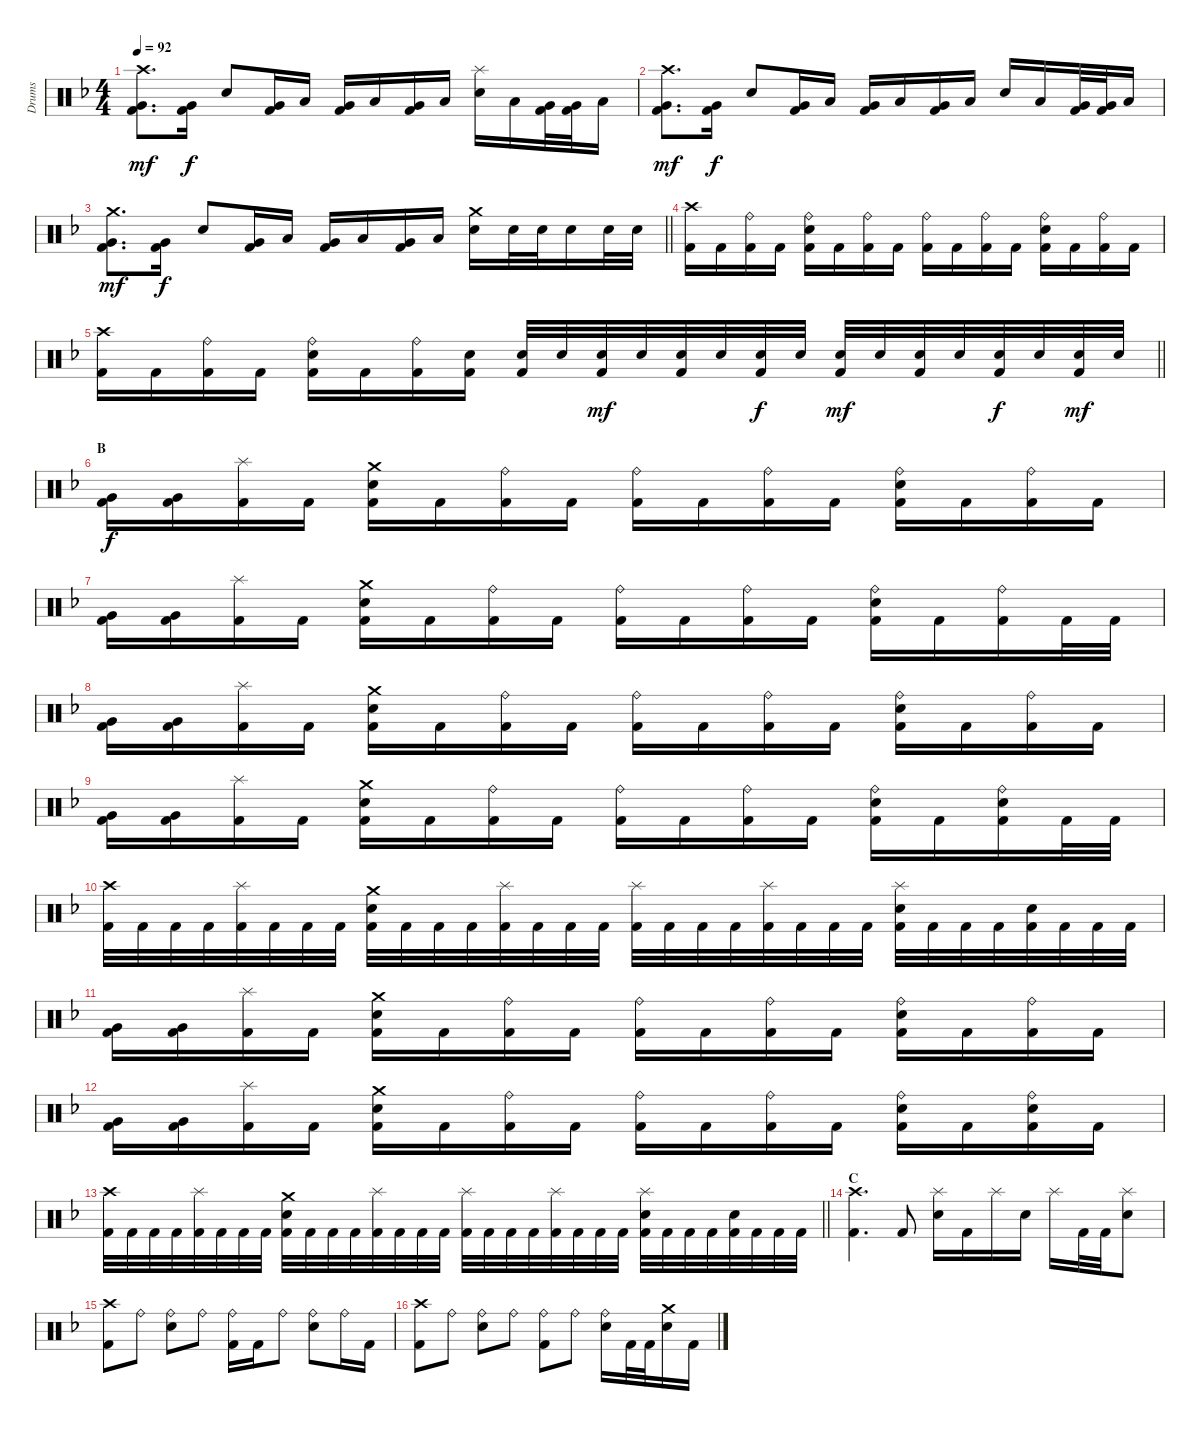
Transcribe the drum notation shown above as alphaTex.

\track ("Drums" "Drums") {instrument percussion}
\staff {score}
\articulation defaults
\ts (4 4)
\tempo 92
\clef neutral
\ks f
("Crash high (hit)" "Very Low Tom (hit)" "Kick (hit) 2").8{d dy mf} ("Very Low Tom (hit)" "Kick (hit) 2").16{dy f} "Snare (hit) 2".8 ("Very Low Tom (hit)" "Kick (hit) 2").16 "Low Tom (hit)".16 ("Very Low Tom (hit)" "Kick (hit) 2").16 "Low Tom (hit)".16 ("Very Low Tom (hit)" "Kick (hit) 2").16 "Low Tom (hit)".16 ("Splash (hit)" "Snare (hit) 2").16 "Low Tom (hit)".16 ("Very Low Tom (hit)" "Kick (hit) 2").32 ("Very Low Tom (hit)" "Kick (hit) 2").32 "Low Tom (hit)".16 |
("Crash high (hit)" "Very Low Tom (hit)" "Kick (hit) 2").8{d dy mf} ("Very Low Tom (hit)" "Kick (hit) 2").16{dy f} "Snare (hit) 2".8 ("Very Low Tom (hit)" "Kick (hit) 2").16 "Low Tom (hit)".16 ("Very Low Tom (hit)" "Kick (hit) 2").16 "Low Tom (hit)".16 ("Very Low Tom (hit)" "Kick (hit) 2").16 "Low Tom (hit)".16 "Snare (hit) 2".16 "Low Tom (hit)".16 ("Very Low Tom (hit)" "Kick (hit) 2").32 ("Very Low Tom (hit)" "Kick (hit) 2").32 "Low Tom (hit)".16 |
\barLineRight lightlight
("Crash medium (hit)" "Very Low Tom (hit)" "Kick (hit) 2").8{d dy mf} ("Very Low Tom (hit)" "Kick (hit) 2").16{dy f} "Snare (hit) 2".8 ("Very Low Tom (hit)" "Kick (hit) 2").16 "Low Tom (hit)".16 ("Very Low Tom (hit)" "Kick (hit) 2").16 "Low Tom (hit)".16 ("Very Low Tom (hit)" "Kick (hit) 2").16 "Low Tom (hit)".16 ("Snare (hit) 2" "Crash medium (hit)").16 "Snare (hit) 2".32 "Snare (hit) 2".32 "Snare (hit) 2".16 "Snare (hit) 2".32 "Snare (hit) 2".32 |
\section ("" "")
("Kick (hit) 2" "Crash high (hit)").16 "Kick (hit) 2".16 ("Kick (hit) 2" "Ride (bell)").16 "Kick (hit) 2".16 ("Kick (hit) 2" "Ride (bell)" "Snare (hit) 2").16 "Kick (hit) 2".16 ("Kick (hit) 2" "Ride (bell)").16 "Kick (hit) 2".16 ("Kick (hit) 2" "Ride (bell)").16 "Kick (hit) 2".16 ("Kick (hit) 2" "Ride (bell)").16 "Kick (hit) 2".16 ("Kick (hit) 2" "Ride (bell)" "Snare (hit) 2").16 "Kick (hit) 2".16 ("Kick (hit) 2" "Ride (bell)").16 "Kick (hit) 2".16 |
\barLineRight lightlight
("Kick (hit) 2" "Crash high (hit)").16 "Kick (hit) 2".16 ("Kick (hit) 2" "Ride (bell)").16 "Kick (hit) 2".16 ("Kick (hit) 2" "Ride (bell)" "Snare (hit) 2").16 "Kick (hit) 2".16 ("Kick (hit) 2" "Ride (bell)").16 ("Kick (hit) 2" "Snare (hit) 2").16 ("Snare (hit) 2" "Kick (hit) 2").32 "Snare (hit) 2".32 ("Snare (hit) 2" "Kick (hit) 2").32{dy mf} "Snare (hit) 2".32 ("Snare (hit) 2" "Kick (hit) 2").32 "Snare (hit) 2".32 ("Snare (hit) 2" "Kick (hit) 2").32{dy f} "Snare (hit) 2".32 ("Snare (hit) 2" "Kick (hit) 2").32{dy mf} "Snare (hit) 2".32 ("Snare (hit) 2" "Kick (hit) 2").32 "Snare (hit) 2".32 ("Snare (hit) 2" "Kick (hit) 2").32{dy f} "Snare (hit) 2".32 ("Snare (hit) 2" "Kick (hit) 2").32{dy mf} "Snare (hit) 2".32 |
\section ("" "B")
("Kick (hit) 2" "Very Low Tom (hit)").16{dy f} ("Kick (hit) 2" "Very Low Tom (hit)").16 ("Kick (hit) 2" "Splash (hit)").16 "Kick (hit) 2".16 ("Kick (hit) 2" "Crash medium (hit)" "Snare (hit) 2").16 "Kick (hit) 2".16 ("Kick (hit) 2" "Ride (bell)").16 "Kick (hit) 2".16 ("Kick (hit) 2" "Ride (bell)").16 "Kick (hit) 2".16 ("Kick (hit) 2" "Ride (bell)").16 "Kick (hit) 2".16 ("Kick (hit) 2" "Ride (bell)" "Snare (hit) 2").16 "Kick (hit) 2".16 ("Kick (hit) 2" "Ride (bell)").16 "Kick (hit) 2".16 |
("Kick (hit) 2" "Very Low Tom (hit)").16 ("Kick (hit) 2" "Very Low Tom (hit)").16 ("Kick (hit) 2" "Splash (hit)").16 "Kick (hit) 2".16 ("Kick (hit) 2" "Crash medium (hit)" "Snare (hit) 2").16 "Kick (hit) 2".16 ("Kick (hit) 2" "Ride (bell)").16 "Kick (hit) 2".16 ("Kick (hit) 2" "Ride (bell)").16 "Kick (hit) 2".16 ("Kick (hit) 2" "Ride (bell)").16 "Kick (hit) 2".16 ("Kick (hit) 2" "Ride (bell)" "Snare (hit) 2").16 "Kick (hit) 2".16 ("Kick (hit) 2" "Ride (bell)").16 "Kick (hit) 2".32 "Kick (hit) 2".32 |
("Kick (hit) 2" "Very Low Tom (hit)").16 ("Kick (hit) 2" "Very Low Tom (hit)").16 ("Kick (hit) 2" "Splash (hit)").16 "Kick (hit) 2".16 ("Kick (hit) 2" "Crash medium (hit)" "Snare (hit) 2").16 "Kick (hit) 2".16 ("Kick (hit) 2" "Ride (bell)").16 "Kick (hit) 2".16 ("Kick (hit) 2" "Ride (bell)").16 "Kick (hit) 2".16 ("Kick (hit) 2" "Ride (bell)").16 "Kick (hit) 2".16 ("Kick (hit) 2" "Ride (bell)" "Snare (hit) 2").16 "Kick (hit) 2".16 ("Kick (hit) 2" "Ride (bell)").16 "Kick (hit) 2".16 |
("Kick (hit) 2" "Very Low Tom (hit)").16 ("Kick (hit) 2" "Very Low Tom (hit)").16 ("Kick (hit) 2" "Splash (hit)").16 "Kick (hit) 2".16 ("Kick (hit) 2" "Crash medium (hit)" "Snare (hit) 2").16 "Kick (hit) 2".16 ("Kick (hit) 2" "Ride (bell)").16 "Kick (hit) 2".16 ("Kick (hit) 2" "Ride (bell)").16 "Kick (hit) 2".16 ("Kick (hit) 2" "Ride (bell)").16 "Kick (hit) 2".16 ("Kick (hit) 2" "Ride (bell)" "Snare (hit) 2").16 "Kick (hit) 2".16 ("Kick (hit) 2" "Ride (bell)" "Snare (hit) 2").16 "Kick (hit) 2".32 "Kick (hit) 2".32 |
("Kick (hit) 2" "Crash high (hit)").32 "Kick (hit) 2".32 "Kick (hit) 2".32 "Kick (hit) 2".32 ("Kick (hit) 2" "Splash (hit)").32 "Kick (hit) 2".32 "Kick (hit) 2".32 "Kick (hit) 2".32 ("Kick (hit) 2" "Crash medium (hit)" "Snare (hit) 2").32 "Kick (hit) 2".32 "Kick (hit) 2".32 "Kick (hit) 2".32 ("Kick (hit) 2" "Splash (hit)").32 "Kick (hit) 2".32 "Kick (hit) 2".32 "Kick (hit) 2".32 ("Kick (hit) 2" "Splash (hit)").32 "Kick (hit) 2".32 "Kick (hit) 2".32 "Kick (hit) 2".32 ("Kick (hit) 2" "Splash (hit)").32 "Kick (hit) 2".32 "Kick (hit) 2".32 "Kick (hit) 2".32 ("Kick (hit) 2" "Snare (hit) 2" "Splash (hit)").32 "Kick (hit) 2".32 "Kick (hit) 2".32 "Kick (hit) 2".32 ("Kick (hit) 2" "Snare (hit) 2").32 "Kick (hit) 2".32 "Kick (hit) 2".32 "Kick (hit) 2".32 |
("Kick (hit) 2" "Very Low Tom (hit)").16 ("Kick (hit) 2" "Very Low Tom (hit)").16 ("Kick (hit) 2" "Splash (hit)").16 "Kick (hit) 2".16 ("Kick (hit) 2" "Crash medium (hit)" "Snare (hit) 2").16 "Kick (hit) 2".16 ("Kick (hit) 2" "Ride (bell)").16 "Kick (hit) 2".16 ("Kick (hit) 2" "Ride (bell)").16 "Kick (hit) 2".16 ("Kick (hit) 2" "Ride (bell)").16 "Kick (hit) 2".16 ("Kick (hit) 2" "Ride (bell)" "Snare (hit) 2").16 "Kick (hit) 2".16 ("Kick (hit) 2" "Ride (bell)").16 "Kick (hit) 2".16 |
("Kick (hit) 2" "Very Low Tom (hit)").16 ("Kick (hit) 2" "Very Low Tom (hit)").16 ("Kick (hit) 2" "Splash (hit)").16 "Kick (hit) 2".16 ("Kick (hit) 2" "Crash medium (hit)" "Snare (hit) 2").16 "Kick (hit) 2".16 ("Kick (hit) 2" "Ride (bell)").16 "Kick (hit) 2".16 ("Kick (hit) 2" "Ride (bell)").16 "Kick (hit) 2".16 ("Kick (hit) 2" "Ride (bell)").16 "Kick (hit) 2".16 ("Kick (hit) 2" "Ride (bell)" "Snare (hit) 2").16 "Kick (hit) 2".16 ("Kick (hit) 2" "Ride (bell)" "Snare (hit) 2").16 "Kick (hit) 2".16 |
\barLineRight lightlight
("Kick (hit) 2" "Crash high (hit)").32 "Kick (hit) 2".32 "Kick (hit) 2".32 "Kick (hit) 2".32 ("Kick (hit) 2" "Splash (hit)").32 "Kick (hit) 2".32 "Kick (hit) 2".32 "Kick (hit) 2".32 ("Kick (hit) 2" "Crash medium (hit)" "Snare (hit) 2").32 "Kick (hit) 2".32 "Kick (hit) 2".32 "Kick (hit) 2".32 ("Kick (hit) 2" "Splash (hit)").32 "Kick (hit) 2".32 "Kick (hit) 2".32 "Kick (hit) 2".32 ("Kick (hit) 2" "Splash (hit)").32 "Kick (hit) 2".32 "Kick (hit) 2".32 "Kick (hit) 2".32 ("Kick (hit) 2" "Splash (hit)").32 "Kick (hit) 2".32 "Kick (hit) 2".32 "Kick (hit) 2".32 ("Kick (hit) 2" "Snare (hit) 2" "Splash (hit)").32 "Kick (hit) 2".32 "Kick (hit) 2".32 "Kick (hit) 2".32 ("Kick (hit) 2" "Snare (hit) 2").32 "Kick (hit) 2".32 "Kick (hit) 2".32 "Kick (hit) 2".32 |
\section ("" "C")
("Crash high (hit)" "Kick (hit) 2").4{d} "Kick (hit) 2".8 ("Splash (hit)" "Snare (hit) 2").16 "Kick (hit) 2".16 "Splash (hit)".16 "Snare (hit) 2".16 "Splash (hit)".16 "Kick (hit) 2".32 "Kick (hit) 2".32 ("Splash (hit)" "Snare (hit) 2").8 |
("Crash high (hit)" "Kick (hit) 2").8 "Ride (bell)".8 ("Ride (bell)" "Snare (hit) 2").8 "Ride (bell)".8 ("Ride (bell)" "Kick (hit) 2").16 "Kick (hit) 2".16 "Ride (bell)".8 ("Ride (bell)" "Snare (hit) 2").8 "Ride (bell)".16 "Kick (hit) 2".16 |
("Crash high (hit)" "Kick (hit) 2").8 "Ride (bell)".8 ("Ride (bell)" "Snare (hit) 2").8 "Ride (bell)".8 ("Ride (bell)" "Kick (hit) 2").8 "Ride (bell)".8 ("Ride (bell)" "Snare (hit) 2").16 "Kick (hit) 2".32 "Kick (hit) 2".32 ("Crash medium (hit)" "Snare (hit) 2").16 "Kick (hit) 2".16
